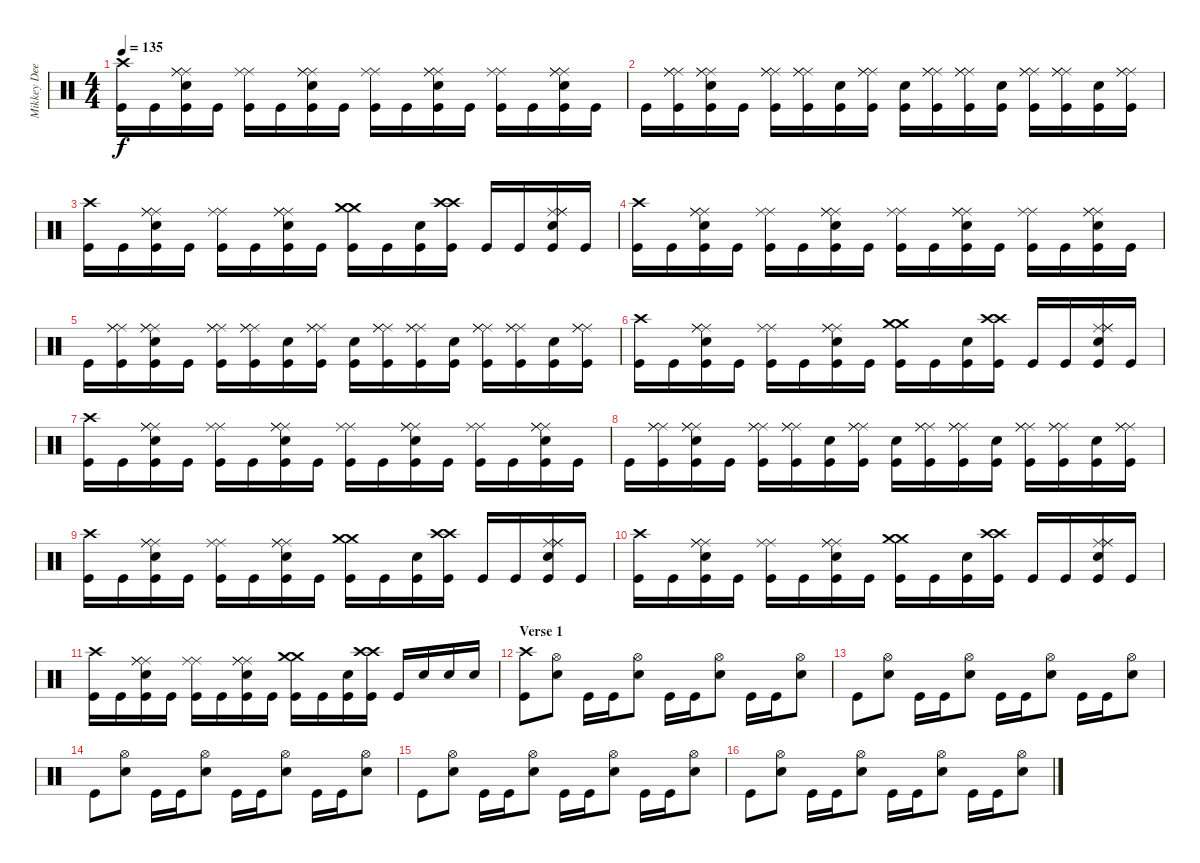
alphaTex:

\track ("Mikkey Dee - Drums" "Mikkey Dee") {instrument percussion}
\staff {score}
\articulation defaults
\ts (4 4)
\tempo 135
\clef neutral
\ks c
("Crash high (hit)" "Kick (hit)").16{dy f} "Kick (hit)".16 ("Ride (middle)" "Ride (middle)" "Ride (middle)" "Snare (hit) 2" "Kick (hit)").16 "Kick (hit)".16 ("Ride (middle)" "Ride (middle)" "Kick (hit)").16 "Kick (hit)".16 ("Ride (middle)" "Ride (middle)" "Ride (middle)" "Snare (hit) 2" "Kick (hit)").16 "Kick (hit)".16 ("Ride (middle)" "Ride (middle)" "Kick (hit)").16 "Kick (hit)".16 ("Ride (middle)" "Ride (middle)" "Ride (middle)" "Snare (hit) 2" "Kick (hit)").16 "Kick (hit)".16 ("Ride (middle)" "Ride (middle)" "Kick (hit)").16 "Kick (hit)".16 ("Ride (middle)" "Ride (middle)" "Ride (middle)" "Snare (hit) 2" "Kick (hit)").16 "Kick (hit)".16 |
"Kick (hit)".16 ("Ride (middle)" "Ride (middle)" "Ride (middle)" "Kick (hit)").16 ("Ride (middle)" "Ride (middle)" "Ride (middle)" "Snare (hit) 2" "Kick (hit)").16 "Kick (hit)".16 ("Ride (middle)" "Ride (middle)" "Ride (middle)" "Kick (hit)").16 ("Ride (middle)" "Ride (middle)" "Ride (middle)" "Kick (hit)").16 ("Snare (hit) 2" "Kick (hit)").16 ("Ride (middle)" "Ride (middle)" "Ride (middle)" "Kick (hit)").16 ("Snare (hit) 2" "Kick (hit)").16 ("Ride (middle)" "Ride (middle)" "Ride (middle)" "Kick (hit)").16 ("Ride (middle)" "Ride (middle)" "Ride (middle)" "Kick (hit)").16 ("Snare (hit) 2" "Kick (hit)").16 ("Ride (middle)" "Ride (middle)" "Ride (middle)" "Kick (hit)").16 ("Ride (middle)" "Ride (middle)" "Ride (middle)" "Kick (hit)").16 ("Snare (hit) 2" "Kick (hit)").16 ("Ride (middle)" "Ride (middle)" "Ride (middle)" "Kick (hit)").16 |
("Crash high (hit)" "Kick (hit)").16 "Kick (hit)".16 ("Ride (middle)" "Ride (middle)" "Ride (middle)" "Snare (hit) 2" "Kick (hit)").16 "Kick (hit)".16 ("Ride (middle)" "Ride (middle)" "Kick (hit)").16 "Kick (hit)".16 ("Ride (middle)" "Ride (middle)" "Ride (middle)" "Snare (hit) 2" "Kick (hit)").16 "Kick (hit)".16 ("Crash medium (hit)" "Crash medium (hit)" "Kick (hit)").16 "Kick (hit)".16 ("Snare (hit) 2" "Kick (hit)").16 ("Crash high (hit)" "Crash high (hit)" "Kick (hit)").16 "Kick (hit)".16 "Kick (hit)".16 ("Ride (middle)" "Ride (middle)" "Ride (middle)" "Snare (hit) 2" "Kick (hit)").16 "Kick (hit)".16 |
("Crash high (hit)" "Kick (hit)").16 "Kick (hit)".16 ("Ride (middle)" "Ride (middle)" "Ride (middle)" "Snare (hit) 2" "Kick (hit)").16 "Kick (hit)".16 ("Ride (middle)" "Ride (middle)" "Kick (hit)").16 "Kick (hit)".16 ("Ride (middle)" "Ride (middle)" "Ride (middle)" "Snare (hit) 2" "Kick (hit)").16 "Kick (hit)".16 ("Ride (middle)" "Ride (middle)" "Kick (hit)").16 "Kick (hit)".16 ("Ride (middle)" "Ride (middle)" "Ride (middle)" "Snare (hit) 2" "Kick (hit)").16 "Kick (hit)".16 ("Ride (middle)" "Ride (middle)" "Kick (hit)").16 "Kick (hit)".16 ("Ride (middle)" "Ride (middle)" "Ride (middle)" "Snare (hit) 2" "Kick (hit)").16 "Kick (hit)".16 |
"Kick (hit)".16 ("Ride (middle)" "Ride (middle)" "Ride (middle)" "Kick (hit)").16 ("Ride (middle)" "Ride (middle)" "Ride (middle)" "Snare (hit) 2" "Kick (hit)").16 "Kick (hit)".16 ("Ride (middle)" "Ride (middle)" "Ride (middle)" "Kick (hit)").16 ("Ride (middle)" "Ride (middle)" "Ride (middle)" "Kick (hit)").16 ("Snare (hit) 2" "Kick (hit)").16 ("Ride (middle)" "Ride (middle)" "Ride (middle)" "Kick (hit)").16 ("Snare (hit) 2" "Kick (hit)").16 ("Ride (middle)" "Ride (middle)" "Ride (middle)" "Kick (hit)").16 ("Ride (middle)" "Ride (middle)" "Ride (middle)" "Kick (hit)").16 ("Snare (hit) 2" "Kick (hit)").16 ("Ride (middle)" "Ride (middle)" "Ride (middle)" "Kick (hit)").16 ("Ride (middle)" "Ride (middle)" "Ride (middle)" "Kick (hit)").16 ("Snare (hit) 2" "Kick (hit)").16 ("Ride (middle)" "Ride (middle)" "Ride (middle)" "Kick (hit)").16 |
("Crash high (hit)" "Kick (hit)").16 "Kick (hit)".16 ("Ride (middle)" "Ride (middle)" "Ride (middle)" "Snare (hit) 2" "Kick (hit)").16 "Kick (hit)".16 ("Ride (middle)" "Ride (middle)" "Kick (hit)").16 "Kick (hit)".16 ("Ride (middle)" "Ride (middle)" "Ride (middle)" "Snare (hit) 2" "Kick (hit)").16 "Kick (hit)".16 ("Crash medium (hit)" "Crash medium (hit)" "Kick (hit)").16 "Kick (hit)".16 ("Snare (hit) 2" "Kick (hit)").16 ("Crash high (hit)" "Crash high (hit)" "Kick (hit)").16 "Kick (hit)".16 "Kick (hit)".16 ("Ride (middle)" "Ride (middle)" "Ride (middle)" "Snare (hit) 2" "Kick (hit)").16 "Kick (hit)".16 |
("Crash high (hit)" "Kick (hit)").16 "Kick (hit)".16 ("Ride (middle)" "Ride (middle)" "Ride (middle)" "Snare (hit) 2" "Kick (hit)").16 "Kick (hit)".16 ("Ride (middle)" "Ride (middle)" "Kick (hit)").16 "Kick (hit)".16 ("Ride (middle)" "Ride (middle)" "Ride (middle)" "Snare (hit) 2" "Kick (hit)").16 "Kick (hit)".16 ("Ride (middle)" "Ride (middle)" "Kick (hit)").16 "Kick (hit)".16 ("Ride (middle)" "Ride (middle)" "Ride (middle)" "Snare (hit) 2" "Kick (hit)").16 "Kick (hit)".16 ("Ride (middle)" "Ride (middle)" "Kick (hit)").16 "Kick (hit)".16 ("Ride (middle)" "Ride (middle)" "Ride (middle)" "Snare (hit) 2" "Kick (hit)").16 "Kick (hit)".16 |
"Kick (hit)".16 ("Ride (middle)" "Ride (middle)" "Ride (middle)" "Kick (hit)").16 ("Ride (middle)" "Ride (middle)" "Ride (middle)" "Snare (hit) 2" "Kick (hit)").16 "Kick (hit)".16 ("Ride (middle)" "Ride (middle)" "Ride (middle)" "Kick (hit)").16 ("Ride (middle)" "Ride (middle)" "Ride (middle)" "Kick (hit)").16 ("Snare (hit) 2" "Kick (hit)").16 ("Ride (middle)" "Ride (middle)" "Ride (middle)" "Kick (hit)").16 ("Snare (hit) 2" "Kick (hit)").16 ("Ride (middle)" "Ride (middle)" "Ride (middle)" "Kick (hit)").16 ("Ride (middle)" "Ride (middle)" "Ride (middle)" "Kick (hit)").16 ("Snare (hit) 2" "Kick (hit)").16 ("Ride (middle)" "Ride (middle)" "Ride (middle)" "Kick (hit)").16 ("Ride (middle)" "Ride (middle)" "Ride (middle)" "Kick (hit)").16 ("Snare (hit) 2" "Kick (hit)").16 ("Ride (middle)" "Ride (middle)" "Ride (middle)" "Kick (hit)").16 |
("Crash high (hit)" "Kick (hit)").16 "Kick (hit)".16 ("Ride (middle)" "Ride (middle)" "Ride (middle)" "Snare (hit) 2" "Kick (hit)").16 "Kick (hit)".16 ("Ride (middle)" "Ride (middle)" "Kick (hit)").16 "Kick (hit)".16 ("Ride (middle)" "Ride (middle)" "Ride (middle)" "Snare (hit) 2" "Kick (hit)").16 "Kick (hit)".16 ("Crash medium (hit)" "Crash medium (hit)" "Kick (hit)").16 "Kick (hit)".16 ("Snare (hit) 2" "Kick (hit)").16 ("Crash high (hit)" "Crash high (hit)" "Kick (hit)").16 "Kick (hit)".16 "Kick (hit)".16 ("Ride (middle)" "Ride (middle)" "Ride (middle)" "Snare (hit) 2" "Kick (hit)").16 "Kick (hit)".16 |
("Crash high (hit)" "Kick (hit)").16 "Kick (hit)".16 ("Ride (middle)" "Ride (middle)" "Ride (middle)" "Snare (hit) 2" "Kick (hit)").16 "Kick (hit)".16 ("Ride (middle)" "Ride (middle)" "Kick (hit)").16 "Kick (hit)".16 ("Ride (middle)" "Ride (middle)" "Ride (middle)" "Snare (hit) 2" "Kick (hit)").16 "Kick (hit)".16 ("Crash medium (hit)" "Crash medium (hit)" "Kick (hit)").16 "Kick (hit)".16 ("Snare (hit) 2" "Kick (hit)").16 ("Crash high (hit)" "Crash high (hit)" "Kick (hit)").16 "Kick (hit)".16 "Kick (hit)".16 ("Ride (middle)" "Ride (middle)" "Ride (middle)" "Snare (hit) 2" "Kick (hit)").16 "Kick (hit)".16 |
("Crash high (hit)" "Kick (hit)").16 "Kick (hit)".16 ("Ride (middle)" "Ride (middle)" "Ride (middle)" "Snare (hit) 2" "Kick (hit)").16 "Kick (hit)".16 ("Ride (middle)" "Ride (middle)" "Kick (hit)").16 "Kick (hit)".16 ("Ride (middle)" "Ride (middle)" "Ride (middle)" "Snare (hit) 2" "Kick (hit)").16 "Kick (hit)".16 ("Crash medium (hit)" "Crash medium (hit)" "Kick (hit)").16 "Kick (hit)".16 ("Snare (hit) 2" "Kick (hit)").16 ("Crash high (hit)" "Crash high (hit)" "Kick (hit)").16 "Kick (hit)".16 "Snare (hit) 2".16 "Snare (hit) 2".16 "Snare (hit) 2".16 |
\section ("" "Verse 1")
("Crash high (hit)" "Kick (hit)").8 ("Snare (hit) 2" "Hi-Hat (open)").8 "Kick (hit)".16 "Kick (hit)".16 ("Snare (hit) 2" "Hi-Hat (open)").8 "Kick (hit)".16 "Kick (hit)".16 ("Snare (hit) 2" "Hi-Hat (open)").8 "Kick (hit)".16 "Kick (hit)".16 ("Snare (hit) 2" "Hi-Hat (open)").8 |
"Kick (hit)".8 ("Snare (hit) 2" "Hi-Hat (open)").8 "Kick (hit)".16 "Kick (hit)".16 ("Snare (hit) 2" "Hi-Hat (open)").8 "Kick (hit)".16 "Kick (hit)".16 ("Snare (hit) 2" "Hi-Hat (open)").8 "Kick (hit)".16 "Kick (hit)".16 ("Snare (hit) 2" "Hi-Hat (open)").8 |
"Kick (hit)".8 ("Snare (hit) 2" "Hi-Hat (open)").8 "Kick (hit)".16 "Kick (hit)".16 ("Snare (hit) 2" "Hi-Hat (open)").8 "Kick (hit)".16 "Kick (hit)".16 ("Snare (hit) 2" "Hi-Hat (open)").8 "Kick (hit)".16 "Kick (hit)".16 ("Snare (hit) 2" "Hi-Hat (open)").8 |
"Kick (hit)".8 ("Snare (hit) 2" "Hi-Hat (open)").8 "Kick (hit)".16 "Kick (hit)".16 ("Snare (hit) 2" "Hi-Hat (open)").8 "Kick (hit)".16 "Kick (hit)".16 ("Snare (hit) 2" "Hi-Hat (open)").8 "Kick (hit)".16 "Kick (hit)".16 ("Snare (hit) 2" "Hi-Hat (open)").8 |
"Kick (hit)".8 ("Snare (hit) 2" "Hi-Hat (open)").8 "Kick (hit)".16 "Kick (hit)".16 ("Snare (hit) 2" "Hi-Hat (open)").8 "Kick (hit)".16 "Kick (hit)".16 ("Snare (hit) 2" "Hi-Hat (open)").8 "Kick (hit)".16 "Kick (hit)".16 ("Snare (hit) 2" "Hi-Hat (open)").8
